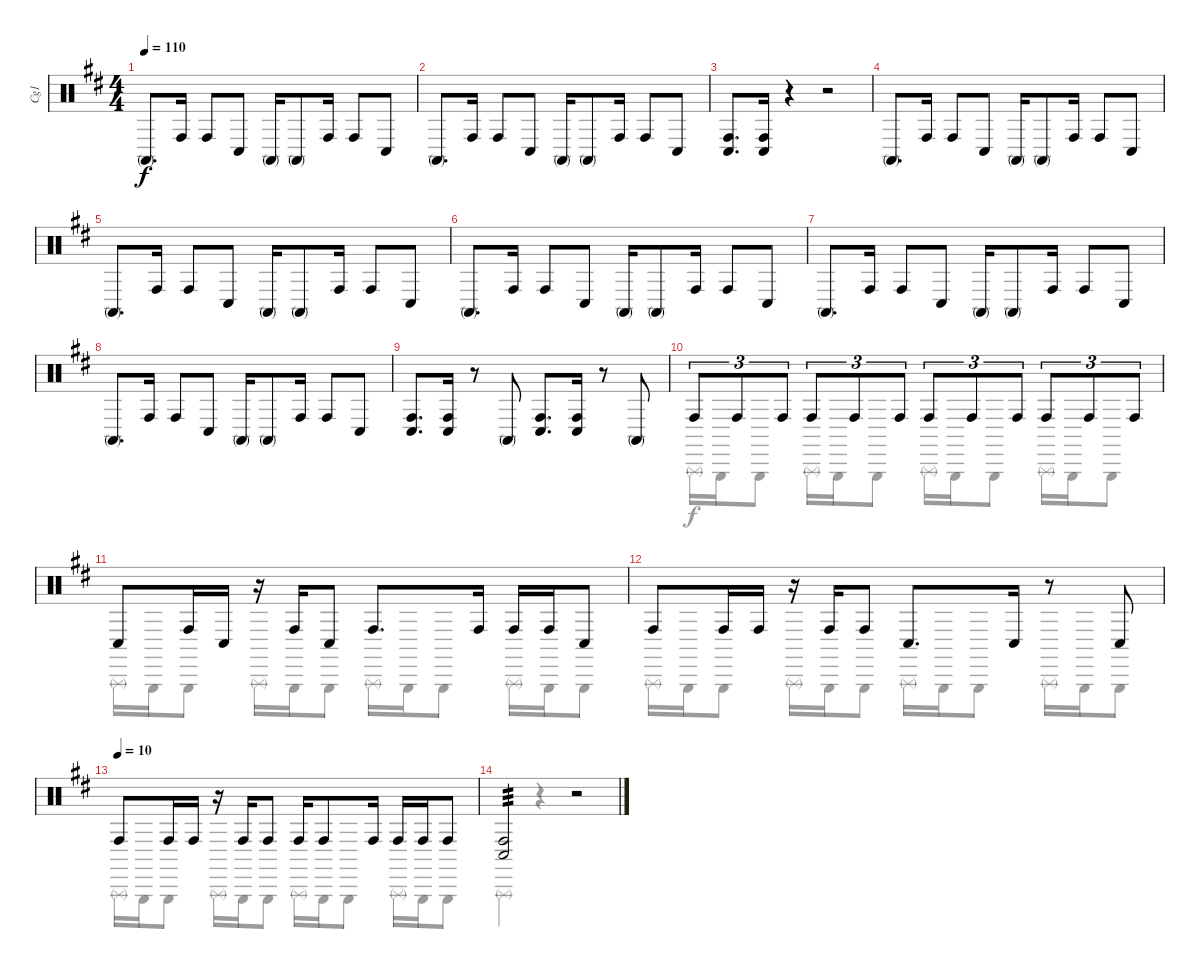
\track ("Cg1" "Cg1") {instrument percussion}
\staff {score}
\articulation defaults
\voice
\ts (4 4)
\tempo 110
\clef neutral
\ks d "Conga high (mute)".8{d dy f} "Conga high (hit)".16 "Conga high (hit)".8 "Conga low (hit)".8 "Conga high (mute)".16 "Conga high (mute)".8 "Conga high (hit)".16 "Conga high (hit)".8 "Conga low (hit)".8
|
"Conga high (mute)".8{d} "Conga high (hit)".16 "Conga high (hit)".8 "Conga low (hit)".8 "Conga high (mute)".16 "Conga high (mute)".8 "Conga high (hit)".16 "Conga high (hit)".8 "Conga low (hit)".8 |
("Conga high (hit)" "Conga low (hit)").8{d} ("Conga high (hit)" "Conga low (hit)").16 r.4 r.2 |
"Conga high (mute)".8{d} "Conga high (hit)".16 "Conga high (hit)".8 "Conga low (hit)".8 "Conga high (mute)".16 "Conga high (mute)".8 "Conga high (hit)".16 "Conga high (hit)".8 "Conga low (hit)".8 |
"Conga high (mute)".8{d} "Conga high (hit)".16 "Conga high (hit)".8 "Conga low (hit)".8 "Conga high (mute)".16 "Conga high (mute)".8 "Conga high (hit)".16 "Conga high (hit)".8 "Conga low (hit)".8 |
"Conga high (mute)".8{d} "Conga high (hit)".16 "Conga high (hit)".8 "Conga low (hit)".8 "Conga high (mute)".16 "Conga high (mute)".8 "Conga high (hit)".16 "Conga high (hit)".8 "Conga low (hit)".8 |
"Conga high (mute)".8{d} "Conga high (hit)".16 "Conga high (hit)".8 "Conga low (hit)".8 "Conga high (mute)".16 "Conga high (mute)".8 "Conga high (hit)".16 "Conga high (hit)".8 "Conga low (hit)".8 |
"Conga high (mute)".8{d} "Conga high (hit)".16 "Conga high (hit)".8 "Conga low (hit)".8 "Conga high (mute)".16 "Conga high (mute)".8 "Conga high (hit)".16 "Conga high (hit)".8 "Conga low (hit)".8 |
("Conga high (hit)" "Conga low (hit)").8{d} ("Conga high (hit)" "Conga low (hit)").16 r.8 "Conga high (mute)".8 ("Conga high (hit)" "Conga low (hit)").8{d} ("Conga high (hit)" "Conga low (hit)").16 r.8 "Conga high (mute)".8 |
"Conga high (hit)".8{tu (3 2)} "Conga high (hit)".8{tu (3 2)} "Conga high (hit)".8{tu (3 2)} "Conga high (hit)".8{tu (3 2)} "Conga high (hit)".8{tu (3 2)} "Conga high (hit)".8{tu (3 2)} "Conga high (hit)".8{tu (3 2)} "Conga high (hit)".8{tu (3 2)} "Conga high (hit)".8{tu (3 2)} "Conga high (hit)".8{tu (3 2)} "Conga high (hit)".8{tu (3 2)} "Conga high (hit)".8{tu (3 2)} |
"Conga low (hit)".8 "Conga high (hit)".16 "Conga low (hit)".16 r.16 "Conga high (hit)".16 "Conga low (hit)".8 "Conga high (hit)".8{d} "Conga high (hit)".16 "Conga high (hit)".16 "Conga high (hit)".16 "Conga low (hit)".8 |
"Conga high (hit)".8 "Conga high (hit)".16 "Conga high (hit)".16 r.16 "Conga high (hit)".16 "Conga high (hit)".8 "Conga low (hit)".8{d} "Conga low (hit)".16 r.8 "Conga low (hit)".8 |
\tempo (10)
"Conga high (hit)".8 "Conga high (hit)".16 "Conga high (hit)".16 r.16 "Conga high (hit)".16 "Conga high (hit)".8 "Conga high (hit)".16 "Conga high (hit)".8 "Conga high (hit)".16 "Conga high (hit)".16 "Conga high (hit)".16 "Conga high (hit)".8 |
("Conga high (hit)" "Conga low (hit)").2{tp 3} r.2
\voice
\clef neutral
\ottava regular
\simile none
\ks d
|
|
|
|
|
|
|
|
|
"Triangle (rnute)".16 "Triangle (hit)".16 "Triangle (hit)".8 "Triangle (rnute)".16 "Triangle (hit)".16 "Triangle (hit)".8 "Triangle (rnute)".16 "Triangle (hit)".16 "Triangle (hit)".8 "Triangle (rnute)".16 "Triangle (hit)".16 "Triangle (hit)".8 |
"Triangle (rnute)".16 "Triangle (hit)".16 "Triangle (hit)".8 "Triangle (rnute)".16 "Triangle (hit)".16 "Triangle (hit)".8 "Triangle (rnute)".16 "Triangle (hit)".16 "Triangle (hit)".8 "Triangle (rnute)".16 "Triangle (hit)".16 "Triangle (hit)".8 |
"Triangle (rnute)".16 "Triangle (hit)".16 "Triangle (hit)".8 "Triangle (rnute)".16 "Triangle (hit)".16 "Triangle (hit)".8 "Triangle (rnute)".16 "Triangle (hit)".16 "Triangle (hit)".8 "Triangle (rnute)".16 "Triangle (hit)".16 "Triangle (hit)".8 |
"Triangle (rnute)".16 "Triangle (hit)".16 "Triangle (hit)".8 "Triangle (rnute)".16 "Triangle (hit)".16 "Triangle (hit)".8 "Triangle (rnute)".16 "Triangle (hit)".16 "Triangle (hit)".8 "Triangle (rnute)".16 "Triangle (hit)".16 "Triangle (hit)".8 |
"Triangle (rnute)".4 r.4 r.2
